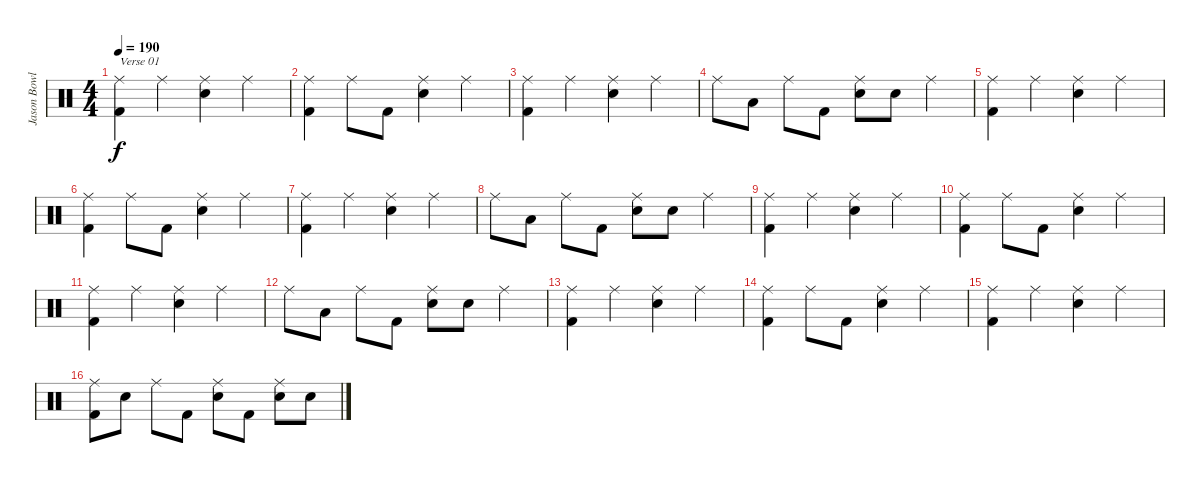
\track ("Jason Bowld" "Jason Bowl") {instrument percussion}
\staff {score}
\articulation defaults
\ts (4 4)
\tempo 190
\clef neutral
\ks c
("Ride (middle)" "Kick (hit) 2").4{txt "Verse 01" dy f} "Ride (middle)".4 ("Ride (middle)" "Snare (hit) 2").4 "Ride (middle)".4 |
("Ride (middle)" "Kick (hit) 2").4 "Ride (middle)".8 "Kick (hit) 2".8 ("Ride (middle)" "Snare (hit) 2").4 "Ride (middle)".4 |
("Ride (middle)" "Kick (hit) 2").4 "Ride (middle)".4 ("Ride (middle)" "Snare (hit) 2").4 "Ride (middle)".4 |
"Ride (middle)".8 "Low Tom (hit)".8 "Ride (middle)".8 "Kick (hit) 2".8 ("Ride (middle)" "Snare (hit) 2").8 "Snare (hit) 2".8 "Ride (middle)".4 |
("Ride (middle)" "Kick (hit) 2").4 "Ride (middle)".4 ("Ride (middle)" "Snare (hit) 2").4 "Ride (middle)".4 |
("Ride (middle)" "Kick (hit) 2").4 "Ride (middle)".8 "Kick (hit) 2".8 ("Ride (middle)" "Snare (hit) 2").4 "Ride (middle)".4 |
("Ride (middle)" "Kick (hit) 2").4 "Ride (middle)".4 ("Ride (middle)" "Snare (hit) 2").4 "Ride (middle)".4 |
"Ride (middle)".8 "Low Tom (hit)".8 "Ride (middle)".8 "Kick (hit) 2".8 ("Ride (middle)" "Snare (hit) 2").8 "Snare (hit) 2".8 "Ride (middle)".4 |
("Ride (middle)" "Kick (hit) 2").4 "Ride (middle)".4 ("Ride (middle)" "Snare (hit) 2").4 "Ride (middle)".4 |
("Ride (middle)" "Kick (hit) 2").4 "Ride (middle)".8 "Kick (hit) 2".8 ("Ride (middle)" "Snare (hit) 2").4 "Ride (middle)".4 |
("Ride (middle)" "Kick (hit) 2").4 "Ride (middle)".4 ("Ride (middle)" "Snare (hit) 2").4 "Ride (middle)".4 |
"Ride (middle)".8 "Low Tom (hit)".8 "Ride (middle)".8 "Kick (hit) 2".8 ("Ride (middle)" "Snare (hit) 2").8 "Snare (hit) 2".8 "Ride (middle)".4 |
("Ride (middle)" "Kick (hit) 2").4 "Ride (middle)".4 ("Ride (middle)" "Snare (hit) 2").4 "Ride (middle)".4 |
("Ride (middle)" "Kick (hit) 2").4 "Ride (middle)".8 "Kick (hit) 2".8 ("Ride (middle)" "Snare (hit) 2").4 "Ride (middle)".4 |
("Ride (middle)" "Kick (hit) 2").4 "Ride (middle)".4 ("Ride (middle)" "Snare (hit) 2").4 "Ride (middle)".4 |
("Ride (middle)" "Kick (hit) 2").8 "Snare (hit) 2".8 "Ride (middle)".8 "Kick (hit) 2".8 ("Ride (middle)" "Snare (hit) 2").8 "Kick (hit) 2".8 ("Ride (middle)" "Snare (hit) 2").8 "Snare (hit) 2".8
